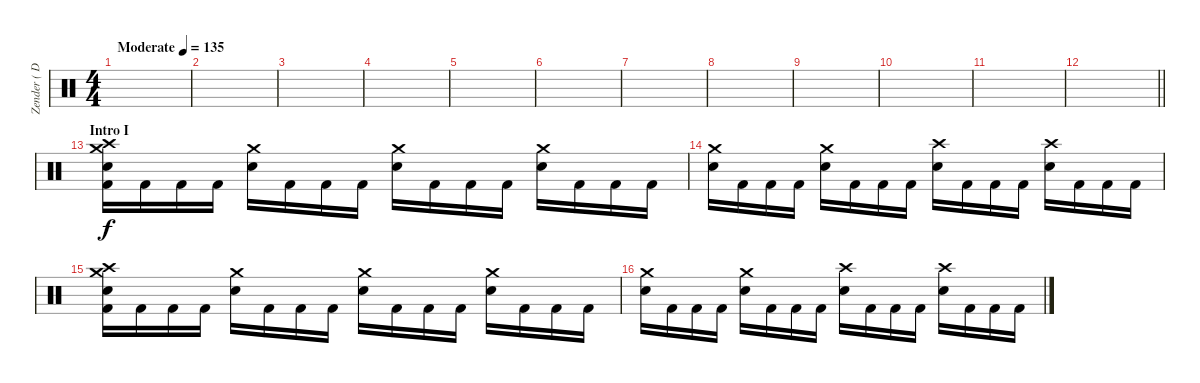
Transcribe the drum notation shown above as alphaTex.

\track ("Zender ( Drums )" "Zender ( D") {instrument percussion}
\staff {score}
\articulation defaults
\ts (4 4)
\tempo (135 "Moderate")
\clef neutral
\ks c
|
|
|
|
|
|
|
|
|
|
|
\barLineRight lightlight
|
\section ("" "Intro I")
("Crash medium (hit)" "Crash high (hit)" "Electric Snare (hit)" "Kick (hit) 2").16 "Kick (hit) 2".16 "Kick (hit) 2".16 "Kick (hit) 2".16 ("Crash medium (hit)" "Electric Snare (hit)").16 "Kick (hit) 2".16 "Kick (hit) 2".16 "Kick (hit) 2".16 ("Crash medium (hit)" "Electric Snare (hit)").16 "Kick (hit) 2".16 "Kick (hit) 2".16 "Kick (hit) 2".16 ("Crash medium (hit)" "Electric Snare (hit)").16 "Kick (hit) 2".16 "Kick (hit) 2".16 "Kick (hit) 2".16 |
("Crash medium (hit)" "Electric Snare (hit)").16 "Kick (hit) 2".16 "Kick (hit) 2".16 "Kick (hit) 2".16 ("Crash medium (hit)" "Electric Snare (hit)").16 "Kick (hit) 2".16 "Kick (hit) 2".16 "Kick (hit) 2".16 ("Crash high (hit)" "Electric Snare (hit)").16 "Kick (hit) 2".16 "Kick (hit) 2".16 "Kick (hit) 2".16 ("Crash high (hit)" "Electric Snare (hit)").16 "Kick (hit) 2".16 "Kick (hit) 2".16 "Kick (hit) 2".16 |
("Crash medium (hit)" "Crash high (hit)" "Electric Snare (hit)" "Kick (hit) 2").16 "Kick (hit) 2".16 "Kick (hit) 2".16 "Kick (hit) 2".16 ("Crash medium (hit)" "Electric Snare (hit)").16 "Kick (hit) 2".16 "Kick (hit) 2".16 "Kick (hit) 2".16 ("Crash medium (hit)" "Electric Snare (hit)").16 "Kick (hit) 2".16 "Kick (hit) 2".16 "Kick (hit) 2".16 ("Crash medium (hit)" "Electric Snare (hit)").16 "Kick (hit) 2".16 "Kick (hit) 2".16 "Kick (hit) 2".16 |
("Crash medium (hit)" "Electric Snare (hit)").16 "Kick (hit) 2".16 "Kick (hit) 2".16 "Kick (hit) 2".16 ("Crash medium (hit)" "Electric Snare (hit)").16 "Kick (hit) 2".16 "Kick (hit) 2".16 "Kick (hit) 2".16 ("Crash high (hit)" "Electric Snare (hit)").16 "Kick (hit) 2".16 "Kick (hit) 2".16 "Kick (hit) 2".16 ("Crash high (hit)" "Electric Snare (hit)").16 "Kick (hit) 2".16 "Kick (hit) 2".16 "Kick (hit) 2".16
